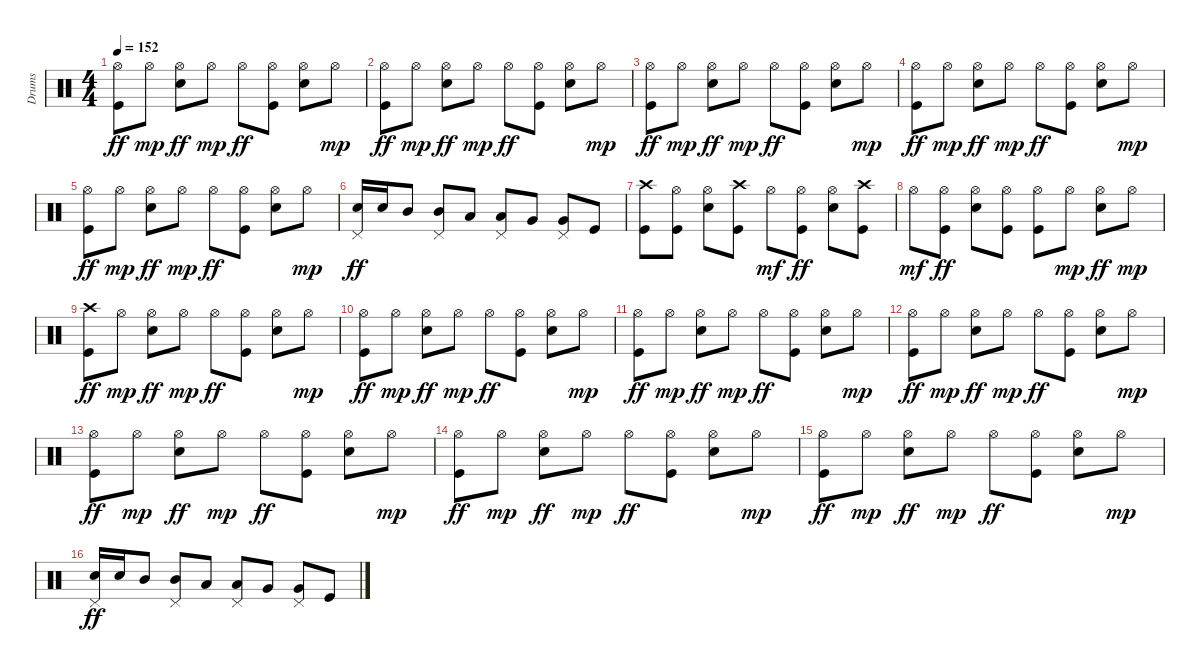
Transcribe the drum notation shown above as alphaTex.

\track ("Drums" "Drums") {instrument percussion}
\staff {score}
\articulation defaults
\ts (4 4)
\tempo 152
\clef neutral
\ks c
("Hi-Hat (open)" "Kick (hit)").8{dy ff} "Hi-Hat (open)".8{dy mp} ("Hi-Hat (open)" "Snare (hit) 2").8{dy ff} "Hi-Hat (open)".8{dy mp} "Hi-Hat (open)".8{dy ff} ("Hi-Hat (open)" "Kick (hit)").8 ("Hi-Hat (open)" "Snare (hit) 2").8 "Hi-Hat (open)".8{dy mp} |
("Hi-Hat (open)" "Kick (hit)").8{dy ff} "Hi-Hat (open)".8{dy mp} ("Hi-Hat (open)" "Snare (hit) 2").8{dy ff} "Hi-Hat (open)".8{dy mp} "Hi-Hat (open)".8{dy ff} ("Hi-Hat (open)" "Kick (hit)").8 ("Hi-Hat (open)" "Snare (hit) 2").8 "Hi-Hat (open)".8{dy mp} |
("Hi-Hat (open)" "Kick (hit)").8{dy ff} "Hi-Hat (open)".8{dy mp} ("Hi-Hat (open)" "Snare (hit) 2").8{dy ff} "Hi-Hat (open)".8{dy mp} "Hi-Hat (open)".8{dy ff} ("Hi-Hat (open)" "Kick (hit)").8 ("Hi-Hat (open)" "Snare (hit) 2").8 "Hi-Hat (open)".8{dy mp} |
("Hi-Hat (open)" "Kick (hit)").8{dy ff} "Hi-Hat (open)".8{dy mp} ("Hi-Hat (open)" "Snare (hit) 2").8{dy ff} "Hi-Hat (open)".8{dy mp} "Hi-Hat (open)".8{dy ff} ("Hi-Hat (open)" "Kick (hit)").8 ("Hi-Hat (open)" "Snare (hit) 2").8 "Hi-Hat (open)".8{dy mp} |
("Hi-Hat (open)" "Kick (hit)").8{dy ff} "Hi-Hat (open)".8{dy mp} ("Hi-Hat (open)" "Snare (hit) 2").8{dy ff} "Hi-Hat (open)".8{dy mp} "Hi-Hat (open)".8{dy ff} ("Hi-Hat (open)" "Kick (hit)").8 ("Hi-Hat (open)" "Snare (hit) 2").8 "Hi-Hat (open)".8{dy mp} |
("Pedal Hi-Hat (hit)" "Snare (hit) 2").16{dy ff} "Snare (hit) 2".16 "Mid Tom (hit)".8 ("Pedal Hi-Hat (hit)" "Mid Tom (hit)").8 "Low Tom (hit)".8 ("Pedal Hi-Hat (hit)" "Low Tom (hit)").8 "Very Low Tom (hit)".8 ("Pedal Hi-Hat (hit)" "Very Low Tom (hit)").8 "Kick (hit)".8 |
("Crash high (hit)" "Kick (hit)").8 ("Hi-Hat (open)" "Kick (hit)").8 ("Hi-Hat (open)" "Snare (hit) 2").8 ("Crash high (hit)" "Kick (hit)").8 "Hi-Hat (open)".8{dy mf} ("Hi-Hat (open)" "Kick (hit)").8{dy ff} ("Hi-Hat (open)" "Snare (hit) 2").8 ("Crash high (hit)" "Kick (hit)").8 |
"Hi-Hat (open)".8{dy mf} ("Hi-Hat (open)" "Kick (hit)").8{dy ff} ("Hi-Hat (open)" "Snare (hit) 2").8 ("Hi-Hat (open)" "Kick (hit)").8 ("Hi-Hat (open)" "Kick (hit)").8 "Hi-Hat (open)".8{dy mp} ("Hi-Hat (open)" "Snare (hit) 2").8{dy ff} "Hi-Hat (open)".8{dy mp} |
("Crash high (hit)" "Kick (hit)").8{dy ff} "Hi-Hat (open)".8{dy mp} ("Hi-Hat (open)" "Snare (hit) 2").8{dy ff} "Hi-Hat (open)".8{dy mp} "Hi-Hat (open)".8{dy ff} ("Hi-Hat (open)" "Kick (hit)").8 ("Hi-Hat (open)" "Snare (hit) 2").8 "Hi-Hat (open)".8{dy mp} |
("Hi-Hat (open)" "Kick (hit)").8{dy ff} "Hi-Hat (open)".8{dy mp} ("Hi-Hat (open)" "Snare (hit) 2").8{dy ff} "Hi-Hat (open)".8{dy mp} "Hi-Hat (open)".8{dy ff} ("Hi-Hat (open)" "Kick (hit)").8 ("Hi-Hat (open)" "Snare (hit) 2").8 "Hi-Hat (open)".8{dy mp} |
("Hi-Hat (open)" "Kick (hit)").8{dy ff} "Hi-Hat (open)".8{dy mp} ("Hi-Hat (open)" "Snare (hit) 2").8{dy ff} "Hi-Hat (open)".8{dy mp} "Hi-Hat (open)".8{dy ff} ("Hi-Hat (open)" "Kick (hit)").8 ("Hi-Hat (open)" "Snare (hit) 2").8 "Hi-Hat (open)".8{dy mp} |
("Hi-Hat (open)" "Kick (hit)").8{dy ff} "Hi-Hat (open)".8{dy mp} ("Hi-Hat (open)" "Snare (hit) 2").8{dy ff} "Hi-Hat (open)".8{dy mp} "Hi-Hat (open)".8{dy ff} ("Hi-Hat (open)" "Kick (hit)").8 ("Hi-Hat (open)" "Snare (hit) 2").8 "Hi-Hat (open)".8{dy mp} |
("Hi-Hat (open)" "Kick (hit)").8{dy ff} "Hi-Hat (open)".8{dy mp} ("Hi-Hat (open)" "Snare (hit) 2").8{dy ff} "Hi-Hat (open)".8{dy mp} "Hi-Hat (open)".8{dy ff} ("Hi-Hat (open)" "Kick (hit)").8 ("Hi-Hat (open)" "Snare (hit) 2").8 "Hi-Hat (open)".8{dy mp} |
("Hi-Hat (open)" "Kick (hit)").8{dy ff} "Hi-Hat (open)".8{dy mp} ("Hi-Hat (open)" "Snare (hit) 2").8{dy ff} "Hi-Hat (open)".8{dy mp} "Hi-Hat (open)".8{dy ff} ("Hi-Hat (open)" "Kick (hit)").8 ("Hi-Hat (open)" "Snare (hit) 2").8 "Hi-Hat (open)".8{dy mp} |
("Hi-Hat (open)" "Kick (hit)").8{dy ff} "Hi-Hat (open)".8{dy mp} ("Hi-Hat (open)" "Snare (hit) 2").8{dy ff} "Hi-Hat (open)".8{dy mp} "Hi-Hat (open)".8{dy ff} ("Hi-Hat (open)" "Kick (hit)").8 ("Hi-Hat (open)" "Snare (hit) 2").8 "Hi-Hat (open)".8{dy mp} |
("Pedal Hi-Hat (hit)" "Snare (hit) 2").16{dy ff} "Snare (hit) 2".16 "Mid Tom (hit)".8 ("Pedal Hi-Hat (hit)" "Mid Tom (hit)").8 "Low Tom (hit)".8 ("Pedal Hi-Hat (hit)" "Low Tom (hit)").8 "Very Low Tom (hit)".8 ("Pedal Hi-Hat (hit)" "Very Low Tom (hit)").8 "Kick (hit)".8
